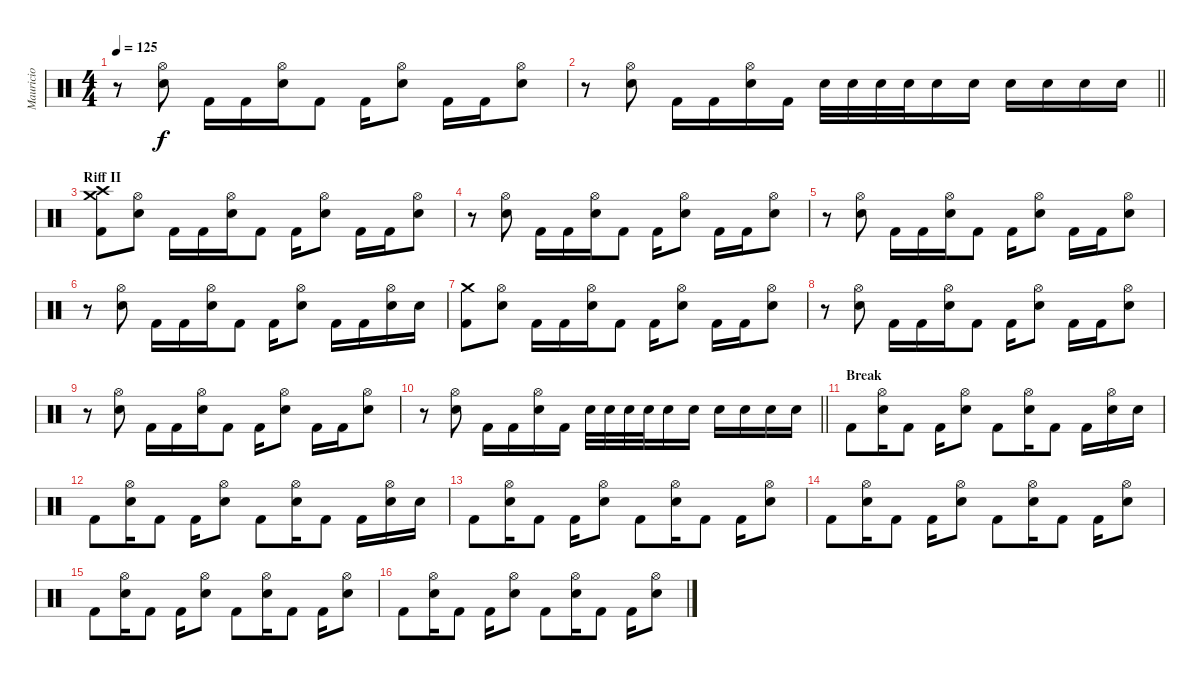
\track ("Mauricio" "Mauricio") {instrument percussion}
\staff {score}
\articulation defaults
\ts (4 4)
\tempo 125
\clef neutral
\ks c
r.8{dy f} ("Hi-Hat (open)" "Electric Snare (hit)").8 "Kick (hit) 2".16 "Kick (hit) 2".16 ("Hi-Hat (open)" "Electric Snare (hit)").16 "Kick (hit) 2".8 "Kick (hit) 2".16 ("Hi-Hat (open)" "Electric Snare (hit)").8 "Kick (hit) 2".16 "Kick (hit) 2".16 ("Hi-Hat (open)" "Electric Snare (hit)").8 |
\barLineRight lightlight
r.8 ("Hi-Hat (open)" "Electric Snare (hit)").8 "Kick (hit) 2".16 "Kick (hit) 2".16 ("Hi-Hat (open)" "Electric Snare (hit)").16 "Kick (hit) 2".16 "Electric Snare (hit)".32 "Electric Snare (hit)".32 "Electric Snare (hit)".32 "Electric Snare (hit)".32 "Electric Snare (hit)".16 "Electric Snare (hit)".16 "Electric Snare (hit)".16 "Electric Snare (hit)".16 "Electric Snare (hit)".16 "Electric Snare (hit)".16 |
\section ("" "Riff II")
("Crash medium (hit)" "Crash high (hit)" "Kick (hit) 2").8 ("Hi-Hat (open)" "Electric Snare (hit)").8 "Kick (hit) 2".16 "Kick (hit) 2".16 ("Hi-Hat (open)" "Electric Snare (hit)").16 "Kick (hit) 2".8 "Kick (hit) 2".16 ("Hi-Hat (open)" "Electric Snare (hit)").8 "Kick (hit) 2".16 "Kick (hit) 2".16 ("Hi-Hat (open)" "Electric Snare (hit)").8 |
r.8 ("Hi-Hat (open)" "Electric Snare (hit)").8 "Kick (hit) 2".16 "Kick (hit) 2".16 ("Hi-Hat (open)" "Electric Snare (hit)").16 "Kick (hit) 2".8 "Kick (hit) 2".16 ("Hi-Hat (open)" "Electric Snare (hit)").8 "Kick (hit) 2".16 "Kick (hit) 2".16 ("Hi-Hat (open)" "Electric Snare (hit)").8 |
r.8 ("Hi-Hat (open)" "Electric Snare (hit)").8 "Kick (hit) 2".16 "Kick (hit) 2".16 ("Hi-Hat (open)" "Electric Snare (hit)").16 "Kick (hit) 2".8 "Kick (hit) 2".16 ("Hi-Hat (open)" "Electric Snare (hit)").8 "Kick (hit) 2".16 "Kick (hit) 2".16 ("Hi-Hat (open)" "Electric Snare (hit)").8 |
r.8 ("Hi-Hat (open)" "Electric Snare (hit)").8 "Kick (hit) 2".16 "Kick (hit) 2".16 ("Hi-Hat (open)" "Electric Snare (hit)").16 "Kick (hit) 2".8 "Kick (hit) 2".16 ("Hi-Hat (open)" "Electric Snare (hit)").8 "Kick (hit) 2".16 "Kick (hit) 2".16 ("Hi-Hat (open)" "Electric Snare (hit)").16 "Electric Snare (hit)".16 |
("Crash medium (hit)" "Kick (hit) 2").8 ("Hi-Hat (open)" "Electric Snare (hit)").8 "Kick (hit) 2".16 "Kick (hit) 2".16 ("Hi-Hat (open)" "Electric Snare (hit)").16 "Kick (hit) 2".8 "Kick (hit) 2".16 ("Hi-Hat (open)" "Electric Snare (hit)").8 "Kick (hit) 2".16 "Kick (hit) 2".16 ("Hi-Hat (open)" "Electric Snare (hit)").8 |
r.8 ("Hi-Hat (open)" "Electric Snare (hit)").8 "Kick (hit) 2".16 "Kick (hit) 2".16 ("Hi-Hat (open)" "Electric Snare (hit)").16 "Kick (hit) 2".8 "Kick (hit) 2".16 ("Hi-Hat (open)" "Electric Snare (hit)").8 "Kick (hit) 2".16 "Kick (hit) 2".16 ("Hi-Hat (open)" "Electric Snare (hit)").8 |
r.8 ("Hi-Hat (open)" "Electric Snare (hit)").8 "Kick (hit) 2".16 "Kick (hit) 2".16 ("Hi-Hat (open)" "Electric Snare (hit)").16 "Kick (hit) 2".8 "Kick (hit) 2".16 ("Hi-Hat (open)" "Electric Snare (hit)").8 "Kick (hit) 2".16 "Kick (hit) 2".16 ("Hi-Hat (open)" "Electric Snare (hit)").8 |
\barLineRight lightlight
r.8 ("Hi-Hat (open)" "Electric Snare (hit)").8 "Kick (hit) 2".16 "Kick (hit) 2".16 ("Hi-Hat (open)" "Electric Snare (hit)").16 "Kick (hit) 2".16 "Electric Snare (hit)".32 "Electric Snare (hit)".32 "Electric Snare (hit)".32 "Electric Snare (hit)".32 "Electric Snare (hit)".16 "Electric Snare (hit)".16 "Electric Snare (hit)".16 "Electric Snare (hit)".16 "Electric Snare (hit)".16 "Electric Snare (hit)".16 |
\section ("" "Break")
"Kick (hit) 2".8 ("Hi-Hat (open)" "Electric Snare (hit)").16 "Kick (hit) 2".8 "Kick (hit) 2".16 ("Hi-Hat (open)" "Electric Snare (hit)").8 "Kick (hit) 2".8 ("Hi-Hat (open)" "Electric Snare (hit)").16 "Kick (hit) 2".8 "Kick (hit) 2".16 ("Hi-Hat (open)" "Electric Snare (hit)").16 "Electric Snare (hit)".16 |
"Kick (hit) 2".8 ("Hi-Hat (open)" "Electric Snare (hit)").16 "Kick (hit) 2".8 "Kick (hit) 2".16 ("Hi-Hat (open)" "Electric Snare (hit)").8 "Kick (hit) 2".8 ("Hi-Hat (open)" "Electric Snare (hit)").16 "Kick (hit) 2".8 "Kick (hit) 2".16 ("Hi-Hat (open)" "Electric Snare (hit)").16 "Electric Snare (hit)".16 |
"Kick (hit) 2".8 ("Hi-Hat (open)" "Electric Snare (hit)").16 "Kick (hit) 2".8 "Kick (hit) 2".16 ("Hi-Hat (open)" "Electric Snare (hit)").8 "Kick (hit) 2".8 ("Hi-Hat (open)" "Electric Snare (hit)").16 "Kick (hit) 2".8 "Kick (hit) 2".16 ("Hi-Hat (open)" "Electric Snare (hit)").8 |
"Kick (hit) 2".8 ("Hi-Hat (open)" "Electric Snare (hit)").16 "Kick (hit) 2".8 "Kick (hit) 2".16 ("Hi-Hat (open)" "Electric Snare (hit)").8 "Kick (hit) 2".8 ("Hi-Hat (open)" "Electric Snare (hit)").16 "Kick (hit) 2".8 "Kick (hit) 2".16 ("Hi-Hat (open)" "Electric Snare (hit)").8 |
"Kick (hit) 2".8 ("Hi-Hat (open)" "Electric Snare (hit)").16 "Kick (hit) 2".8 "Kick (hit) 2".16 ("Hi-Hat (open)" "Electric Snare (hit)").8 "Kick (hit) 2".8 ("Hi-Hat (open)" "Electric Snare (hit)").16 "Kick (hit) 2".8 "Kick (hit) 2".16 ("Hi-Hat (open)" "Electric Snare (hit)").8 |
"Kick (hit) 2".8 ("Hi-Hat (open)" "Electric Snare (hit)").16 "Kick (hit) 2".8 "Kick (hit) 2".16 ("Hi-Hat (open)" "Electric Snare (hit)").8 "Kick (hit) 2".8 ("Hi-Hat (open)" "Electric Snare (hit)").16 "Kick (hit) 2".8 "Kick (hit) 2".16 ("Hi-Hat (open)" "Electric Snare (hit)").8
